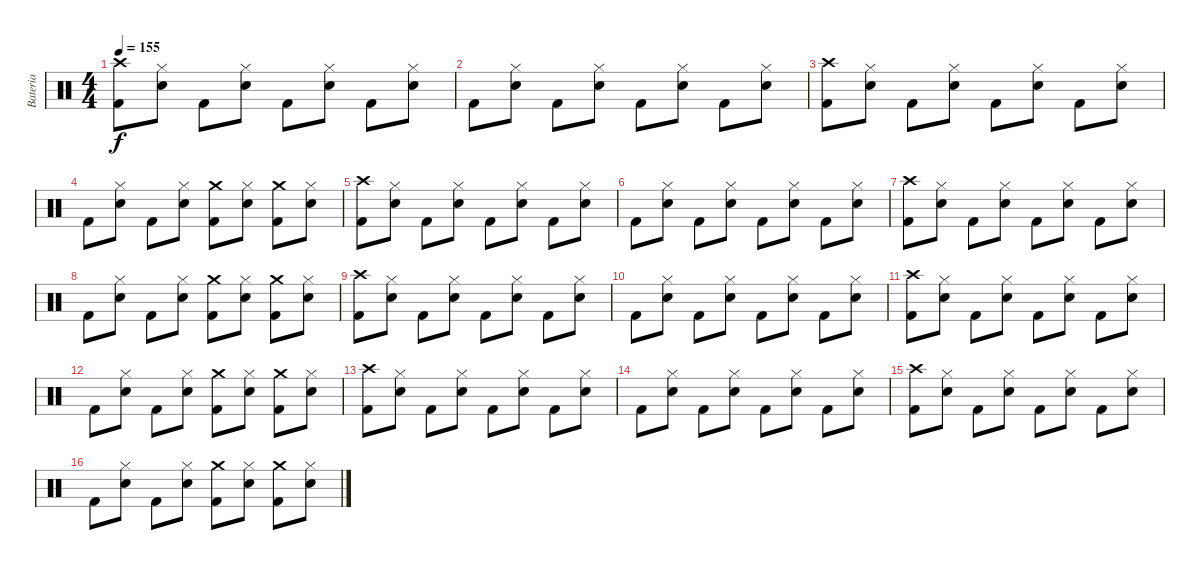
\track ("Bateria" "Bateria") {instrument percussion}
\staff {score}
\articulation defaults
\ts (4 4)
\tempo 155
\clef neutral
\ks c
("Kick (hit) 2" "Crash high (hit)").8{dy f} ("Electric Snare (hit)" "Hi-Hat (closed)").8 "Kick (hit) 2".8 ("Electric Snare (hit)" "Hi-Hat (closed)").8 "Kick (hit) 2".8 ("Electric Snare (hit)" "Hi-Hat (closed)").8 "Kick (hit) 2".8 ("Electric Snare (hit)" "Hi-Hat (closed)").8 |
"Kick (hit) 2".8 ("Electric Snare (hit)" "Hi-Hat (closed)").8 "Kick (hit) 2".8 ("Electric Snare (hit)" "Hi-Hat (closed)").8 "Kick (hit) 2".8 ("Electric Snare (hit)" "Hi-Hat (closed)").8 "Kick (hit) 2".8 ("Electric Snare (hit)" "Hi-Hat (closed)").8 |
("Kick (hit) 2" "Crash high (hit)").8 ("Electric Snare (hit)" "Hi-Hat (closed)").8 "Kick (hit) 2".8 ("Electric Snare (hit)" "Hi-Hat (closed)").8 "Kick (hit) 2".8 ("Electric Snare (hit)" "Hi-Hat (closed)").8 "Kick (hit) 2".8 ("Electric Snare (hit)" "Hi-Hat (closed)").8 |
"Kick (hit) 2".8 ("Electric Snare (hit)" "Hi-Hat (closed)").8 "Kick (hit) 2".8 ("Electric Snare (hit)" "Hi-Hat (closed)").8 ("Kick (hit) 2" "Crash medium (hit)").8 ("Electric Snare (hit)" "Hi-Hat (closed)").8 ("Kick (hit) 2" "Crash medium (hit)").8 ("Electric Snare (hit)" "Hi-Hat (closed)").8 |
("Kick (hit) 2" "Crash high (hit)").8 ("Electric Snare (hit)" "Hi-Hat (closed)").8 "Kick (hit) 2".8 ("Electric Snare (hit)" "Hi-Hat (closed)").8 "Kick (hit) 2".8 ("Electric Snare (hit)" "Hi-Hat (closed)").8 "Kick (hit) 2".8 ("Electric Snare (hit)" "Hi-Hat (closed)").8 |
"Kick (hit) 2".8 ("Electric Snare (hit)" "Hi-Hat (closed)").8 "Kick (hit) 2".8 ("Electric Snare (hit)" "Hi-Hat (closed)").8 "Kick (hit) 2".8 ("Electric Snare (hit)" "Hi-Hat (closed)").8 "Kick (hit) 2".8 ("Electric Snare (hit)" "Hi-Hat (closed)").8 |
("Kick (hit) 2" "Crash high (hit)").8 ("Electric Snare (hit)" "Hi-Hat (closed)").8 "Kick (hit) 2".8 ("Electric Snare (hit)" "Hi-Hat (closed)").8 "Kick (hit) 2".8 ("Electric Snare (hit)" "Hi-Hat (closed)").8 "Kick (hit) 2".8 ("Electric Snare (hit)" "Hi-Hat (closed)").8 |
"Kick (hit) 2".8 ("Electric Snare (hit)" "Hi-Hat (closed)").8 "Kick (hit) 2".8 ("Electric Snare (hit)" "Hi-Hat (closed)").8 ("Kick (hit) 2" "Crash medium (hit)").8 ("Electric Snare (hit)" "Hi-Hat (closed)").8 ("Kick (hit) 2" "Crash medium (hit)").8 ("Electric Snare (hit)" "Hi-Hat (closed)").8 |
("Kick (hit) 2" "Crash high (hit)").8 ("Electric Snare (hit)" "Hi-Hat (closed)").8 "Kick (hit) 2".8 ("Electric Snare (hit)" "Hi-Hat (closed)").8 "Kick (hit) 2".8 ("Electric Snare (hit)" "Hi-Hat (closed)").8 "Kick (hit) 2".8 ("Electric Snare (hit)" "Hi-Hat (closed)").8 |
"Kick (hit) 2".8 ("Electric Snare (hit)" "Hi-Hat (closed)").8 "Kick (hit) 2".8 ("Electric Snare (hit)" "Hi-Hat (closed)").8 "Kick (hit) 2".8 ("Electric Snare (hit)" "Hi-Hat (closed)").8 "Kick (hit) 2".8 ("Electric Snare (hit)" "Hi-Hat (closed)").8 |
("Kick (hit) 2" "Crash high (hit)").8 ("Electric Snare (hit)" "Hi-Hat (closed)").8 "Kick (hit) 2".8 ("Electric Snare (hit)" "Hi-Hat (closed)").8 "Kick (hit) 2".8 ("Electric Snare (hit)" "Hi-Hat (closed)").8 "Kick (hit) 2".8 ("Electric Snare (hit)" "Hi-Hat (closed)").8 |
"Kick (hit) 2".8 ("Electric Snare (hit)" "Hi-Hat (closed)").8 "Kick (hit) 2".8 ("Electric Snare (hit)" "Hi-Hat (closed)").8 ("Kick (hit) 2" "Crash medium (hit)").8 ("Electric Snare (hit)" "Hi-Hat (closed)").8 ("Kick (hit) 2" "Crash medium (hit)").8 ("Electric Snare (hit)" "Hi-Hat (closed)").8 |
("Kick (hit) 2" "Crash high (hit)").8 ("Electric Snare (hit)" "Hi-Hat (closed)").8 "Kick (hit) 2".8 ("Electric Snare (hit)" "Hi-Hat (closed)").8 "Kick (hit) 2".8 ("Electric Snare (hit)" "Hi-Hat (closed)").8 "Kick (hit) 2".8 ("Electric Snare (hit)" "Hi-Hat (closed)").8 |
"Kick (hit) 2".8 ("Electric Snare (hit)" "Hi-Hat (closed)").8 "Kick (hit) 2".8 ("Electric Snare (hit)" "Hi-Hat (closed)").8 "Kick (hit) 2".8 ("Electric Snare (hit)" "Hi-Hat (closed)").8 "Kick (hit) 2".8 ("Electric Snare (hit)" "Hi-Hat (closed)").8 |
("Kick (hit) 2" "Crash high (hit)").8 ("Electric Snare (hit)" "Hi-Hat (closed)").8 "Kick (hit) 2".8 ("Electric Snare (hit)" "Hi-Hat (closed)").8 "Kick (hit) 2".8 ("Electric Snare (hit)" "Hi-Hat (closed)").8 "Kick (hit) 2".8 ("Electric Snare (hit)" "Hi-Hat (closed)").8 |
"Kick (hit) 2".8 ("Electric Snare (hit)" "Hi-Hat (closed)").8 "Kick (hit) 2".8 ("Electric Snare (hit)" "Hi-Hat (closed)").8 ("Kick (hit) 2" "Crash medium (hit)").8 ("Electric Snare (hit)" "Hi-Hat (closed)").8 ("Kick (hit) 2" "Crash medium (hit)").8 ("Electric Snare (hit)" "Hi-Hat (closed)").8
